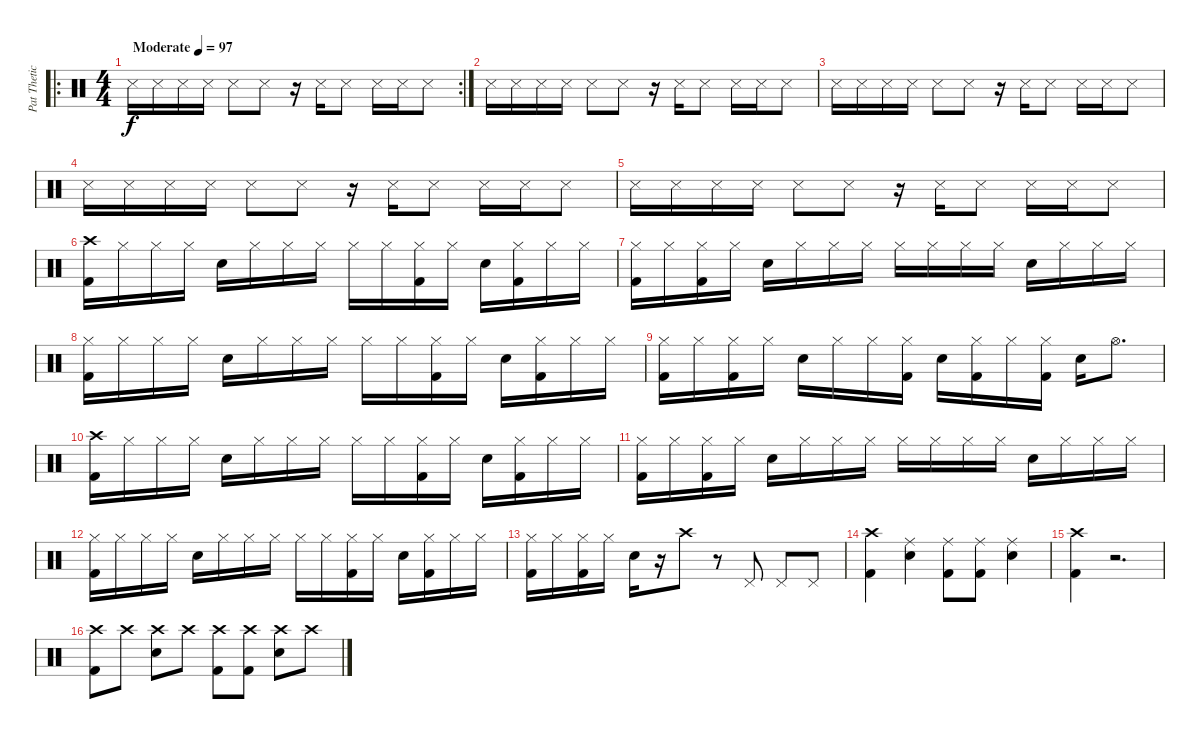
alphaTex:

\track ("Pat Thetic" "Pat Thetic") {instrument percussion}
\staff {score}
\articulation defaults
\ro
\rc 2
\ts (4 4)
\tempo (97 "Moderate")
\clef neutral
\ks c "Metronome (hit)".16{dy f} "Metronome (hit)".16 "Metronome (hit)".16 "Metronome (hit)".16 "Metronome (hit)".8 "Metronome (hit)".8
r.16 "Metronome (hit)".16 "Metronome (hit)".8 "Metronome (hit)".16 "Metronome (hit)".16 "Metronome (hit)".8 |
"Metronome (hit)".16 "Metronome (hit)".16 "Metronome (hit)".16 "Metronome (hit)".16 "Metronome (hit)".8 "Metronome (hit)".8 r.16 "Metronome (hit)".16 "Metronome (hit)".8 "Metronome (hit)".16 "Metronome (hit)".16 "Metronome (hit)".8 |
"Metronome (hit)".16 "Metronome (hit)".16 "Metronome (hit)".16 "Metronome (hit)".16 "Metronome (hit)".8 "Metronome (hit)".8 r.16 "Metronome (hit)".16 "Metronome (hit)".8 "Metronome (hit)".16 "Metronome (hit)".16 "Metronome (hit)".8 |
"Metronome (hit)".16 "Metronome (hit)".16 "Metronome (hit)".16 "Metronome (hit)".16 "Metronome (hit)".8 "Metronome (hit)".8 r.16 "Metronome (hit)".16 "Metronome (hit)".8 "Metronome (hit)".16 "Metronome (hit)".16 "Metronome (hit)".8 |
"Metronome (hit)".16 "Metronome (hit)".16 "Metronome (hit)".16 "Metronome (hit)".16 "Metronome (hit)".8 "Metronome (hit)".8 r.16 "Metronome (hit)".16 "Metronome (hit)".8 "Metronome (hit)".16 "Metronome (hit)".16 "Metronome (hit)".8 |
("Crash high (hit)" "Kick (hit) 2").16 "Hi-Hat (closed)".16 "Hi-Hat (closed)".16 "Hi-Hat (closed)".16 "Electric Snare (hit)".16 "Hi-Hat (closed)".16 "Hi-Hat (closed)".16 "Hi-Hat (closed)".16 "Hi-Hat (closed)".16 "Hi-Hat (closed)".16 ("Hi-Hat (closed)" "Kick (hit) 2").16 "Hi-Hat (closed)".16 "Electric Snare (hit)".16 ("Hi-Hat (closed)" "Kick (hit) 2").16 "Hi-Hat (closed)".16 "Hi-Hat (closed)".16 |
("Hi-Hat (closed)" "Kick (hit) 2").16 "Hi-Hat (closed)".16 ("Hi-Hat (closed)" "Kick (hit) 2").16 "Hi-Hat (closed)".16 "Electric Snare (hit)".16 "Hi-Hat (closed)".16 "Hi-Hat (closed)".16 "Hi-Hat (closed)".16 "Hi-Hat (closed)".16 "Hi-Hat (closed)".16 "Hi-Hat (closed)".16 "Hi-Hat (closed)".16 "Electric Snare (hit)".16 "Hi-Hat (closed)".16 "Hi-Hat (closed)".16 "Hi-Hat (closed)".16 |
("Hi-Hat (closed)" "Kick (hit) 2").16 "Hi-Hat (closed)".16 "Hi-Hat (closed)".16 "Hi-Hat (closed)".16 "Electric Snare (hit)".16 "Hi-Hat (closed)".16 "Hi-Hat (closed)".16 "Hi-Hat (closed)".16 "Hi-Hat (closed)".16 "Hi-Hat (closed)".16 ("Hi-Hat (closed)" "Kick (hit) 2").16 "Hi-Hat (closed)".16 "Electric Snare (hit)".16 ("Hi-Hat (closed)" "Kick (hit) 2").16 "Hi-Hat (closed)".16 "Hi-Hat (closed)".16 |
("Kick (hit) 2" "Hi-Hat (closed)").16 "Hi-Hat (closed)".16 ("Kick (hit) 2" "Hi-Hat (closed)").16 "Hi-Hat (closed)".16 "Electric Snare (hit)".16 "Hi-Hat (closed)".16 "Hi-Hat (closed)".16 ("Kick (hit) 2" "Hi-Hat (closed)").16 "Electric Snare (hit)".16 ("Kick (hit) 2" "Hi-Hat (closed)").16 "Hi-Hat (closed)".16 ("Kick (hit) 2" "Hi-Hat (closed)").16 "Electric Snare (hit)".16 "Hi-Hat (open)".8{d} |
("Crash high (hit)" "Kick (hit) 2").16 "Hi-Hat (closed)".16 "Hi-Hat (closed)".16 "Hi-Hat (closed)".16 "Electric Snare (hit)".16 "Hi-Hat (closed)".16 "Hi-Hat (closed)".16 "Hi-Hat (closed)".16 "Hi-Hat (closed)".16 "Hi-Hat (closed)".16 ("Hi-Hat (closed)" "Kick (hit) 2").16 "Hi-Hat (closed)".16 "Electric Snare (hit)".16 ("Hi-Hat (closed)" "Kick (hit) 2").16 "Hi-Hat (closed)".16 "Hi-Hat (closed)".16 |
("Hi-Hat (closed)" "Kick (hit) 2").16 "Hi-Hat (closed)".16 ("Hi-Hat (closed)" "Kick (hit) 2").16 "Hi-Hat (closed)".16 "Electric Snare (hit)".16 "Hi-Hat (closed)".16 "Hi-Hat (closed)".16 "Hi-Hat (closed)".16 "Hi-Hat (closed)".16 "Hi-Hat (closed)".16 "Hi-Hat (closed)".16 "Hi-Hat (closed)".16 "Electric Snare (hit)".16 "Hi-Hat (closed)".16 "Hi-Hat (closed)".16 "Hi-Hat (closed)".16 |
("Hi-Hat (closed)" "Kick (hit) 2").16 "Hi-Hat (closed)".16 "Hi-Hat (closed)".16 "Hi-Hat (closed)".16 "Electric Snare (hit)".16 "Hi-Hat (closed)".16 "Hi-Hat (closed)".16 "Hi-Hat (closed)".16 "Hi-Hat (closed)".16 "Hi-Hat (closed)".16 ("Hi-Hat (closed)" "Kick (hit) 2").16 "Hi-Hat (closed)".16 "Electric Snare (hit)".16 ("Hi-Hat (closed)" "Kick (hit) 2").16 "Hi-Hat (closed)".16 "Hi-Hat (closed)".16 |
("Hi-Hat (closed)" "Kick (hit) 2").16 "Hi-Hat (closed)".16 ("Hi-Hat (closed)" "Kick (hit) 2").16 "Hi-Hat (closed)".16 "Electric Snare (hit)".16 r.16 "Crash high (hit)".8 r.8 "Pedal Hi-Hat (hit)".8 "Pedal Hi-Hat (hit)".8 "Pedal Hi-Hat (hit)".8 |
("Crash high (hit)" "Kick (hit) 2").4 ("Ride (middle)" "Electric Snare (hit)").4 ("Ride (middle)" "Kick (hit) 2").8 ("Ride (middle)" "Kick (hit) 2").8 ("Ride (middle)" "Electric Snare (hit)").4 |
("Crash high (hit)" "Kick (hit) 2").4 r.2{d} |
("Crash high (hit)" "Kick (hit) 2").8 "Crash high (hit)".8 ("Crash high (hit)" "Electric Snare (hit)").8 "Crash high (hit)".8 ("Crash high (hit)" "Kick (hit) 2").8 ("Crash high (hit)" "Kick (hit) 2").8 ("Crash high (hit)" "Electric Snare (hit)").8 "Crash high (hit)".8
